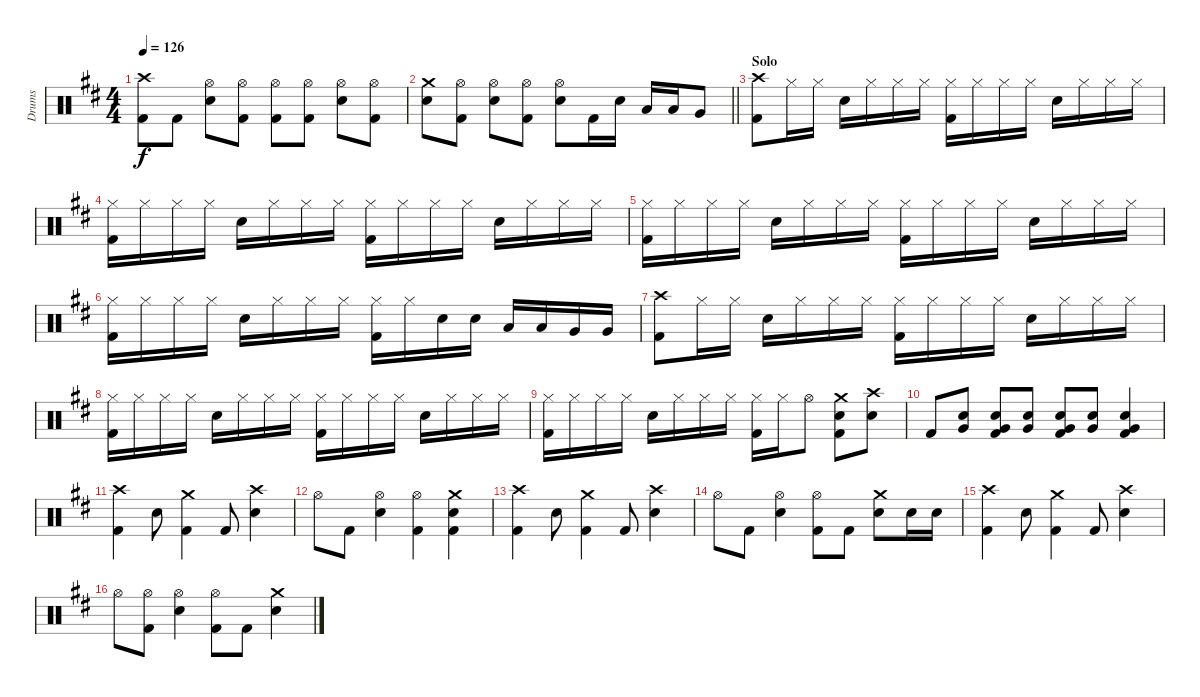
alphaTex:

\track ("Drums" "Drums") {instrument percussion}
\staff {score}
\articulation defaults
\ts (4 4)
\tempo 126
\clef neutral
\ks d
("Crash high (hit)" "Kick (hit) 2").8{dy f} "Kick (hit) 2".8 ("Hi-Hat (open)" "Electric Snare (hit)").8 ("Hi-Hat (open)" "Kick (hit) 2").8 ("Hi-Hat (open)" "Kick (hit) 2").8 ("Hi-Hat (open)" "Kick (hit) 2").8 ("Hi-Hat (open)" "Electric Snare (hit)").8 ("Hi-Hat (open)" "Kick (hit) 2").8 |
\barLineRight lightlight
("Crash medium (hit)" "Electric Snare (hit)").8 ("Hi-Hat (open)" "Kick (hit) 2").8 ("Hi-Hat (open)" "Electric Snare (hit)").8 ("Hi-Hat (open)" "Kick (hit) 2").8 ("Hi-Hat (open)" "Electric Snare (hit)").8 "Kick (hit) 2".16 "Electric Snare (hit)".16 "Low Tom (hit)".16 "Low Tom (hit)".16 "Very Low Tom (hit)".8 |
\section ("" "Solo")
("Crash high (hit)" "Kick (hit) 2").8 "Hi-Hat (closed)".16 "Hi-Hat (closed)".16 "Electric Snare (hit)".16 "Hi-Hat (closed)".16 "Hi-Hat (closed)".16 "Hi-Hat (closed)".16 ("Hi-Hat (closed)" "Kick (hit) 2").16 "Hi-Hat (closed)".16 "Hi-Hat (closed)".16 "Hi-Hat (closed)".16 "Electric Snare (hit)".16 "Hi-Hat (closed)".16 "Hi-Hat (closed)".16 "Hi-Hat (closed)".16 |
("Hi-Hat (closed)" "Kick (hit) 2").16 "Hi-Hat (closed)".16 "Hi-Hat (closed)".16 "Hi-Hat (closed)".16 "Electric Snare (hit)".16 "Hi-Hat (closed)".16 "Hi-Hat (closed)".16 "Hi-Hat (closed)".16 ("Hi-Hat (closed)" "Kick (hit) 2").16 "Hi-Hat (closed)".16 "Hi-Hat (closed)".16 "Hi-Hat (closed)".16 "Electric Snare (hit)".16 "Hi-Hat (closed)".16 "Hi-Hat (closed)".16 "Hi-Hat (closed)".16 |
("Hi-Hat (closed)" "Kick (hit) 2").16 "Hi-Hat (closed)".16 "Hi-Hat (closed)".16 "Hi-Hat (closed)".16 "Electric Snare (hit)".16 "Hi-Hat (closed)".16 "Hi-Hat (closed)".16 "Hi-Hat (closed)".16 ("Hi-Hat (closed)" "Kick (hit) 2").16 "Hi-Hat (closed)".16 "Hi-Hat (closed)".16 "Hi-Hat (closed)".16 "Electric Snare (hit)".16 "Hi-Hat (closed)".16 "Hi-Hat (closed)".16 "Hi-Hat (closed)".16 |
("Hi-Hat (closed)" "Kick (hit) 2").16 "Hi-Hat (closed)".16 "Hi-Hat (closed)".16 "Hi-Hat (closed)".16 "Electric Snare (hit)".16 "Hi-Hat (closed)".16 "Hi-Hat (closed)".16 "Hi-Hat (closed)".16 ("Hi-Hat (closed)" "Kick (hit) 2").16 "Hi-Hat (closed)".16 "Electric Snare (hit)".16 "Electric Snare (hit)".16 "Low Tom (hit)".16 "Low Tom (hit)".16 "Very Low Tom (hit)".16 "Very Low Tom (hit)".16 |
("Crash high (hit)" "Kick (hit) 2").8 "Hi-Hat (closed)".16 "Hi-Hat (closed)".16 "Electric Snare (hit)".16 "Hi-Hat (closed)".16 "Hi-Hat (closed)".16 "Hi-Hat (closed)".16 ("Hi-Hat (closed)" "Kick (hit) 2").16 "Hi-Hat (closed)".16 "Hi-Hat (closed)".16 "Hi-Hat (closed)".16 "Electric Snare (hit)".16 "Hi-Hat (closed)".16 "Hi-Hat (closed)".16 "Hi-Hat (closed)".16 |
("Hi-Hat (closed)" "Kick (hit) 2").16 "Hi-Hat (closed)".16 "Hi-Hat (closed)".16 "Hi-Hat (closed)".16 "Electric Snare (hit)".16 "Hi-Hat (closed)".16 "Hi-Hat (closed)".16 "Hi-Hat (closed)".16 ("Hi-Hat (closed)" "Kick (hit) 2").16 "Hi-Hat (closed)".16 "Hi-Hat (closed)".16 "Hi-Hat (closed)".16 "Electric Snare (hit)".16 "Hi-Hat (closed)".16 "Hi-Hat (closed)".16 "Hi-Hat (closed)".16 |
("Hi-Hat (closed)" "Kick (hit) 2").16 "Hi-Hat (closed)".16 "Hi-Hat (closed)".16 "Hi-Hat (closed)".16 "Electric Snare (hit)".16 "Hi-Hat (closed)".16 "Hi-Hat (closed)".16 "Hi-Hat (closed)".16 ("Hi-Hat (closed)" "Kick (hit) 2").16 "Hi-Hat (closed)".16 "Hi-Hat (open)".8 ("Crash medium (hit)" "Electric Snare (hit)" "Kick (hit) 2").8 ("Crash high (hit)" "Electric Snare (hit)").8 |
"Kick (hit) 2".8 ("Very Low Tom (hit)" "Electric Snare (hit)").8 ("Very Low Tom (hit)" "Electric Snare (hit)" "Kick (hit) 2").8 ("Very Low Tom (hit)" "Electric Snare (hit)").8 ("Very Low Tom (hit)" "Electric Snare (hit)" "Kick (hit) 2").8 ("Very Low Tom (hit)" "Electric Snare (hit)").8 ("Very Low Tom (hit)" "Electric Snare (hit)" "Kick (hit) 2").4 |
("Crash high (hit)" "Kick (hit) 2").4 "Electric Snare (hit)".8 ("Crash medium (hit)" "Kick (hit) 2").4 "Kick (hit) 2".8 ("Crash high (hit)" "Electric Snare (hit)").4 |
"Hi-Hat (open)".8 "Kick (hit) 2".8 ("Hi-Hat (open)" "Electric Snare (hit)").4 ("Hi-Hat (open)" "Kick (hit) 2").4 ("Crash medium (hit)" "Electric Snare (hit)" "Kick (hit) 2").4 |
("Crash high (hit)" "Kick (hit) 2").4 "Electric Snare (hit)".8 ("Crash medium (hit)" "Kick (hit) 2").4 "Kick (hit) 2".8 ("Crash high (hit)" "Electric Snare (hit)").4 |
"Hi-Hat (open)".8 "Kick (hit) 2".8 ("Hi-Hat (open)" "Electric Snare (hit)").4 ("Hi-Hat (open)" "Kick (hit) 2").8 "Kick (hit) 2".8 ("Crash medium (hit)" "Electric Snare (hit)").8 "Electric Snare (hit)".16 "Electric Snare (hit)".16 |
("Crash high (hit)" "Kick (hit) 2").4 "Electric Snare (hit)".8 ("Crash medium (hit)" "Kick (hit) 2").4 "Kick (hit) 2".8 ("Crash high (hit)" "Electric Snare (hit)").4 |
"Hi-Hat (open)".8 ("Hi-Hat (open)" "Kick (hit) 2").8 ("Hi-Hat (open)" "Electric Snare (hit)").4 ("Hi-Hat (open)" "Kick (hit) 2").8 "Kick (hit) 2".8 ("Crash medium (hit)" "Electric Snare (hit)").4
